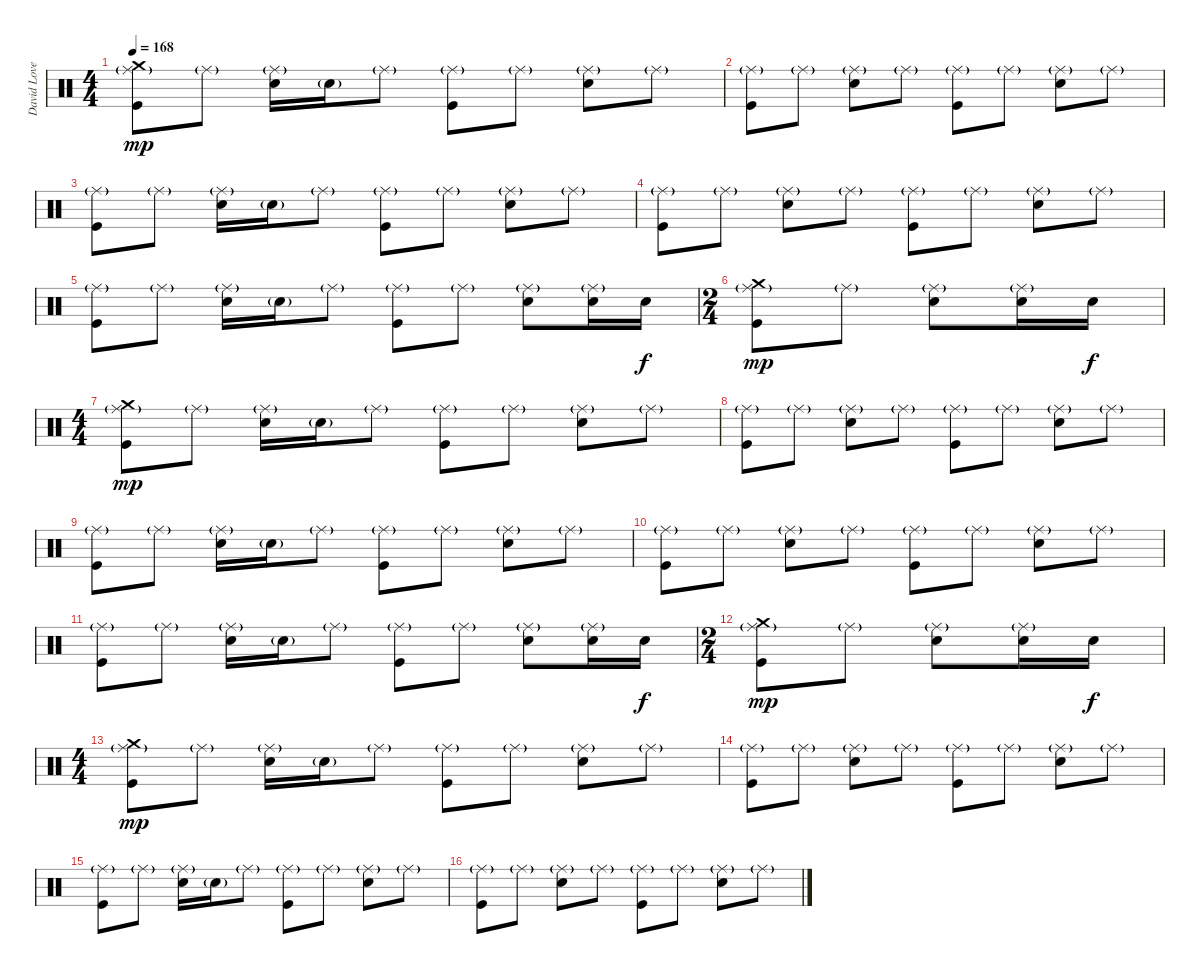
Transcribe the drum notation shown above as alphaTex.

\track ("David Lovering" "David Love") {instrument percussion}
\staff {score}
\articulation defaults
\ts (4 4)
\tempo 168
\clef neutral
\ks c
("Ride (middle)"{g} "Crash medium (hit)" "Kick (hit)").8{dy mp} "Ride (middle)"{g}.8 ("Ride (middle)"{g} "Snare (hit) 2").16 "Snare (hit) 2"{g}.16 "Ride (middle)"{g}.8 ("Ride (middle)"{g} "Kick (hit)").8 "Ride (middle)"{g}.8 ("Ride (middle)"{g} "Snare (hit) 2").8 "Ride (middle)"{g}.8 |
("Ride (middle)"{g} "Kick (hit)").8 "Ride (middle)"{g}.8 ("Ride (middle)"{g} "Snare (hit) 2").8 "Ride (middle)"{g}.8 ("Ride (middle)"{g} "Kick (hit)").8 "Ride (middle)"{g}.8 ("Ride (middle)"{g} "Snare (hit) 2").8 "Ride (middle)"{g}.8 |
("Ride (middle)"{g} "Kick (hit)").8 "Ride (middle)"{g}.8 ("Ride (middle)"{g} "Snare (hit) 2").16 "Snare (hit) 2"{g}.16 "Ride (middle)"{g}.8 ("Ride (middle)"{g} "Kick (hit)").8 "Ride (middle)"{g}.8 ("Ride (middle)"{g} "Snare (hit) 2").8 "Ride (middle)"{g}.8 |
("Ride (middle)"{g} "Kick (hit)").8 "Ride (middle)"{g}.8 ("Ride (middle)"{g} "Snare (hit) 2").8 "Ride (middle)"{g}.8 ("Ride (middle)"{g} "Kick (hit)").8 "Ride (middle)"{g}.8 ("Ride (middle)"{g} "Snare (hit) 2").8 "Ride (middle)"{g}.8 |
("Ride (middle)"{g} "Kick (hit)").8 "Ride (middle)"{g}.8 ("Ride (middle)"{g} "Snare (hit) 2").16 "Snare (hit) 2"{g}.16 "Ride (middle)"{g}.8 ("Ride (middle)"{g} "Kick (hit)").8 "Ride (middle)"{g}.8 ("Ride (middle)"{g} "Snare (hit) 2").8 ("Ride (middle)"{g} "Snare (hit) 2").16 "Snare (hit) 2".16{dy f} |
\ts (2 4)
("Ride (middle)"{g} "Crash medium (hit)" "Kick (hit)").8{dy mp} "Ride (middle)"{g}.8 ("Ride (middle)"{g} "Snare (hit) 2").8 ("Ride (middle)"{g} "Snare (hit) 2").16 "Snare (hit) 2".16{dy f} |
\ts (4 4)
("Ride (middle)"{g} "Crash medium (hit)" "Kick (hit)").8{dy mp} "Ride (middle)"{g}.8 ("Ride (middle)"{g} "Snare (hit) 2").16 "Snare (hit) 2"{g}.16 "Ride (middle)"{g}.8 ("Ride (middle)"{g} "Kick (hit)").8 "Ride (middle)"{g}.8 ("Ride (middle)"{g} "Snare (hit) 2").8 "Ride (middle)"{g}.8 |
("Ride (middle)"{g} "Kick (hit)").8 "Ride (middle)"{g}.8 ("Ride (middle)"{g} "Snare (hit) 2").8 "Ride (middle)"{g}.8 ("Ride (middle)"{g} "Kick (hit)").8 "Ride (middle)"{g}.8 ("Ride (middle)"{g} "Snare (hit) 2").8 "Ride (middle)"{g}.8 |
("Ride (middle)"{g} "Kick (hit)").8 "Ride (middle)"{g}.8 ("Ride (middle)"{g} "Snare (hit) 2").16 "Snare (hit) 2"{g}.16 "Ride (middle)"{g}.8 ("Ride (middle)"{g} "Kick (hit)").8 "Ride (middle)"{g}.8 ("Ride (middle)"{g} "Snare (hit) 2").8 "Ride (middle)"{g}.8 |
("Ride (middle)"{g} "Kick (hit)").8 "Ride (middle)"{g}.8 ("Ride (middle)"{g} "Snare (hit) 2").8 "Ride (middle)"{g}.8 ("Ride (middle)"{g} "Kick (hit)").8 "Ride (middle)"{g}.8 ("Ride (middle)"{g} "Snare (hit) 2").8 "Ride (middle)"{g}.8 |
("Ride (middle)"{g} "Kick (hit)").8 "Ride (middle)"{g}.8 ("Ride (middle)"{g} "Snare (hit) 2").16 "Snare (hit) 2"{g}.16 "Ride (middle)"{g}.8 ("Ride (middle)"{g} "Kick (hit)").8 "Ride (middle)"{g}.8 ("Ride (middle)"{g} "Snare (hit) 2").8 ("Ride (middle)"{g} "Snare (hit) 2").16 "Snare (hit) 2".16{dy f} |
\ts (2 4)
("Ride (middle)"{g} "Crash medium (hit)" "Kick (hit)").8{dy mp} "Ride (middle)"{g}.8 ("Ride (middle)"{g} "Snare (hit) 2").8 ("Ride (middle)"{g} "Snare (hit) 2").16 "Snare (hit) 2".16{dy f} |
\ts (4 4)
("Ride (middle)"{g} "Crash medium (hit)" "Kick (hit)").8{dy mp} "Ride (middle)"{g}.8 ("Ride (middle)"{g} "Snare (hit) 2").16 "Snare (hit) 2"{g}.16 "Ride (middle)"{g}.8 ("Ride (middle)"{g} "Kick (hit)").8 "Ride (middle)"{g}.8 ("Ride (middle)"{g} "Snare (hit) 2").8 "Ride (middle)"{g}.8 |
("Ride (middle)"{g} "Kick (hit)").8 "Ride (middle)"{g}.8 ("Ride (middle)"{g} "Snare (hit) 2").8 "Ride (middle)"{g}.8 ("Ride (middle)"{g} "Kick (hit)").8 "Ride (middle)"{g}.8 ("Ride (middle)"{g} "Snare (hit) 2").8 "Ride (middle)"{g}.8 |
("Ride (middle)"{g} "Kick (hit)").8 "Ride (middle)"{g}.8 ("Ride (middle)"{g} "Snare (hit) 2").16 "Snare (hit) 2"{g}.16 "Ride (middle)"{g}.8 ("Ride (middle)"{g} "Kick (hit)").8 "Ride (middle)"{g}.8 ("Ride (middle)"{g} "Snare (hit) 2").8 "Ride (middle)"{g}.8 |
("Ride (middle)"{g} "Kick (hit)").8 "Ride (middle)"{g}.8 ("Ride (middle)"{g} "Snare (hit) 2").8 "Ride (middle)"{g}.8 ("Ride (middle)"{g} "Kick (hit)").8 "Ride (middle)"{g}.8 ("Ride (middle)"{g} "Snare (hit) 2").8 "Ride (middle)"{g}.8
